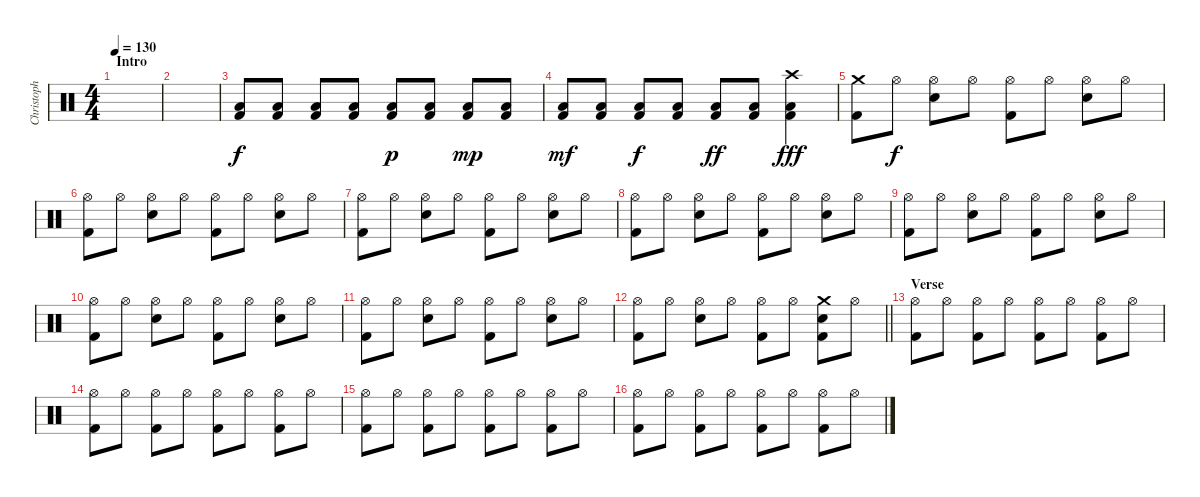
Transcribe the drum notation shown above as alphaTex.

\track ("Christoph \"Doom\" Schneider" "Christoph ") {instrument percussion}
\staff {score}
\articulation defaults
\ts (4 4)
\section ("" "Intro")
\tempo 130
\clef neutral
\ks c
|
|
("Low Floor Tom (hit)" "Kick (hit) 2").8 ("Low Floor Tom (hit)" "Kick (hit) 2").8 ("Low Floor Tom (hit)" "Kick (hit) 2").8 ("Low Floor Tom (hit)" "Kick (hit) 2").8 ("Low Floor Tom (hit)" "Kick (hit) 2").8{dy p} ("Low Floor Tom (hit)" "Kick (hit) 2").8 ("Low Floor Tom (hit)" "Kick (hit) 2").8{dy mp} ("Low Floor Tom (hit)" "Kick (hit) 2").8 |
("Low Floor Tom (hit)" "Kick (hit) 2").8{dy mf} ("Low Floor Tom (hit)" "Kick (hit) 2").8 ("Low Floor Tom (hit)" "Kick (hit) 2").8{dy f} ("Low Floor Tom (hit)" "Kick (hit) 2").8 ("Low Floor Tom (hit)" "Kick (hit) 2").8{dy ff} ("Low Floor Tom (hit)" "Kick (hit) 2").8 ("Crash high (hit)" "Low Floor Tom (hit)" "Kick (hit) 2").4{dy fff} |
("Crash medium (hit)" "Kick (hit) 2").8 "Hi-Hat (open)".8{dy f} ("Hi-Hat (open)" "Electric Snare (hit)").8 "Hi-Hat (open)".8 ("Hi-Hat (open)" "Kick (hit) 2").8 "Hi-Hat (open)".8 ("Hi-Hat (open)" "Electric Snare (hit)").8 "Hi-Hat (open)".8 |
("Hi-Hat (open)" "Kick (hit) 2").8 "Hi-Hat (open)".8 ("Hi-Hat (open)" "Electric Snare (hit)").8 "Hi-Hat (open)".8 ("Hi-Hat (open)" "Kick (hit) 2").8 "Hi-Hat (open)".8 ("Hi-Hat (open)" "Electric Snare (hit)").8 "Hi-Hat (open)".8 |
("Hi-Hat (open)" "Kick (hit) 2").8 "Hi-Hat (open)".8 ("Hi-Hat (open)" "Electric Snare (hit)").8 "Hi-Hat (open)".8 ("Hi-Hat (open)" "Kick (hit) 2").8 "Hi-Hat (open)".8 ("Hi-Hat (open)" "Electric Snare (hit)").8 "Hi-Hat (open)".8 |
("Hi-Hat (open)" "Kick (hit) 2").8 "Hi-Hat (open)".8 ("Hi-Hat (open)" "Electric Snare (hit)").8 "Hi-Hat (open)".8 ("Hi-Hat (open)" "Kick (hit) 2").8 "Hi-Hat (open)".8 ("Hi-Hat (open)" "Electric Snare (hit)").8 "Hi-Hat (open)".8 |
("Hi-Hat (open)" "Kick (hit) 2").8 "Hi-Hat (open)".8 ("Hi-Hat (open)" "Electric Snare (hit)").8 "Hi-Hat (open)".8 ("Hi-Hat (open)" "Kick (hit) 2").8 "Hi-Hat (open)".8 ("Hi-Hat (open)" "Electric Snare (hit)").8 "Hi-Hat (open)".8 |
("Hi-Hat (open)" "Kick (hit) 2").8 "Hi-Hat (open)".8 ("Hi-Hat (open)" "Electric Snare (hit)").8 "Hi-Hat (open)".8 ("Hi-Hat (open)" "Kick (hit) 2").8 "Hi-Hat (open)".8 ("Hi-Hat (open)" "Electric Snare (hit)").8 "Hi-Hat (open)".8 |
("Hi-Hat (open)" "Kick (hit) 2").8 "Hi-Hat (open)".8 ("Hi-Hat (open)" "Electric Snare (hit)").8 "Hi-Hat (open)".8 ("Hi-Hat (open)" "Kick (hit) 2").8 "Hi-Hat (open)".8 ("Hi-Hat (open)" "Electric Snare (hit)").8 "Hi-Hat (open)".8 |
\barLineRight lightlight
("Hi-Hat (open)" "Kick (hit) 2").8 "Hi-Hat (open)".8 ("Hi-Hat (open)" "Electric Snare (hit)").8 "Hi-Hat (open)".8 ("Hi-Hat (open)" "Kick (hit) 2").8 "Hi-Hat (open)".8 ("Crash medium (hit)" "Electric Snare (hit)" "Kick (hit) 2").8 "Hi-Hat (open)".8 |
\section ("" "Verse")
("Hi-Hat (open)" "Kick (hit) 2").8 "Hi-Hat (open)".8 ("Hi-Hat (open)" "Kick (hit) 2").8 "Hi-Hat (open)".8 ("Hi-Hat (open)" "Kick (hit) 2").8 "Hi-Hat (open)".8 ("Hi-Hat (open)" "Kick (hit) 2").8 "Hi-Hat (open)".8 |
("Hi-Hat (open)" "Kick (hit) 2").8 "Hi-Hat (open)".8 ("Hi-Hat (open)" "Kick (hit) 2").8 "Hi-Hat (open)".8 ("Hi-Hat (open)" "Kick (hit) 2").8 "Hi-Hat (open)".8 ("Hi-Hat (open)" "Kick (hit) 2").8 "Hi-Hat (open)".8 |
("Hi-Hat (open)" "Kick (hit) 2").8 "Hi-Hat (open)".8 ("Hi-Hat (open)" "Kick (hit) 2").8 "Hi-Hat (open)".8 ("Hi-Hat (open)" "Kick (hit) 2").8 "Hi-Hat (open)".8 ("Hi-Hat (open)" "Kick (hit) 2").8 "Hi-Hat (open)".8 |
("Hi-Hat (open)" "Kick (hit) 2").8 "Hi-Hat (open)".8 ("Hi-Hat (open)" "Kick (hit) 2").8 "Hi-Hat (open)".8 ("Hi-Hat (open)" "Kick (hit) 2").8 "Hi-Hat (open)".8 ("Hi-Hat (open)" "Kick (hit) 2").8 "Hi-Hat (open)".8
